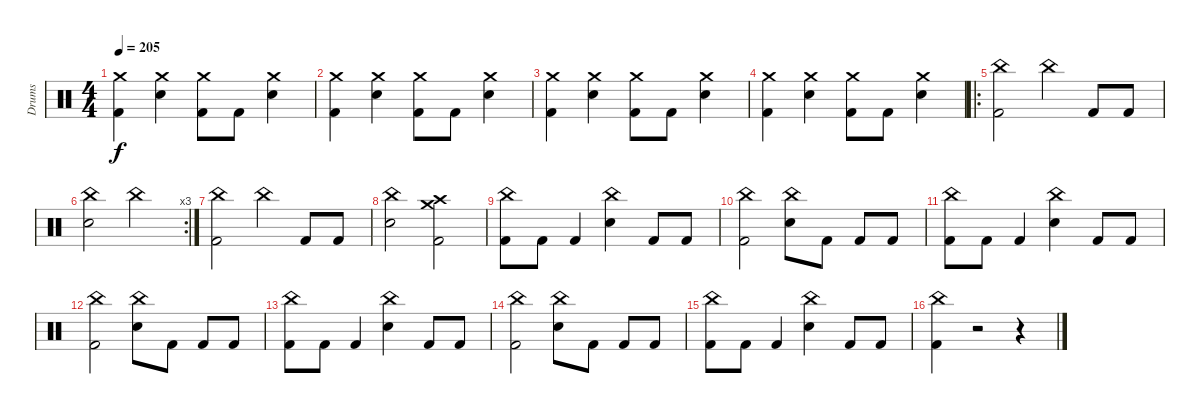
\track ("Drums" "Drums") {instrument percussion}
\staff {score}
\articulation defaults
\ts (4 4)
\tempo 205
\clef neutral
\ks c
("Crash medium (hit)" "Kick (hit) 2").4{dy f} ("Crash medium (hit)" "Electric Snare (hit)").4 ("Crash medium (hit)" "Kick (hit) 2").8 "Kick (hit) 2".8 ("Crash medium (hit)" "Electric Snare (hit)").4 |
("Crash medium (hit)" "Kick (hit) 2").4 ("Crash medium (hit)" "Electric Snare (hit)").4 ("Crash medium (hit)" "Kick (hit) 2").8 "Kick (hit) 2".8 ("Crash medium (hit)" "Electric Snare (hit)").4 |
("Crash medium (hit)" "Kick (hit) 2").4 ("Crash medium (hit)" "Electric Snare (hit)").4 ("Crash medium (hit)" "Kick (hit) 2").8 "Kick (hit) 2".8 ("Crash medium (hit)" "Electric Snare (hit)").4 |
("Crash medium (hit)" "Kick (hit) 2").4 ("Crash medium (hit)" "Electric Snare (hit)").4 ("Crash medium (hit)" "Kick (hit) 2").8 "Kick (hit) 2".8 ("Crash medium (hit)" "Electric Snare (hit)").4 |
\ro
("China (hit)" "Kick (hit) 2").2 "China (hit)".4 "Kick (hit) 2".8 "Kick (hit) 2".8 |
\rc 3
("China (hit)" "Electric Snare (hit)").2 "China (hit)".2 |
("China (hit)" "Kick (hit) 2").2 "China (hit)".4 "Kick (hit) 2".8 "Kick (hit) 2".8 |
("China (hit)" "Electric Snare (hit)").2 ("Crash high (hit)" "Crash medium (hit)" "Kick (hit) 2").2 |
("China (hit)" "Kick (hit) 2").8 "Kick (hit) 2".8 "Kick (hit) 2".4 ("China (hit)" "Electric Snare (hit)").4 "Kick (hit) 2".8 "Kick (hit) 2".8 |
("China (hit)" "Kick (hit) 2").2 ("China (hit)" "Electric Snare (hit)").8 "Kick (hit) 2".8 "Kick (hit) 2".8 "Kick (hit) 2".8 |
("China (hit)" "Kick (hit) 2").8 "Kick (hit) 2".8 "Kick (hit) 2".4 ("China (hit)" "Electric Snare (hit)").4 "Kick (hit) 2".8 "Kick (hit) 2".8 |
("China (hit)" "Kick (hit) 2").2 ("China (hit)" "Electric Snare (hit)").8 "Kick (hit) 2".8 "Kick (hit) 2".8 "Kick (hit) 2".8 |
("China (hit)" "Kick (hit) 2").8 "Kick (hit) 2".8 "Kick (hit) 2".4 ("China (hit)" "Electric Snare (hit)").4 "Kick (hit) 2".8 "Kick (hit) 2".8 |
("China (hit)" "Kick (hit) 2").2 ("China (hit)" "Electric Snare (hit)").8 "Kick (hit) 2".8 "Kick (hit) 2".8 "Kick (hit) 2".8 |
("China (hit)" "Kick (hit) 2").8 "Kick (hit) 2".8 "Kick (hit) 2".4 ("China (hit)" "Electric Snare (hit)").4 "Kick (hit) 2".8 "Kick (hit) 2".8 |
("China (hit)" "Kick (hit) 2").4 r.2{volume 0} r.4{volume 16}
